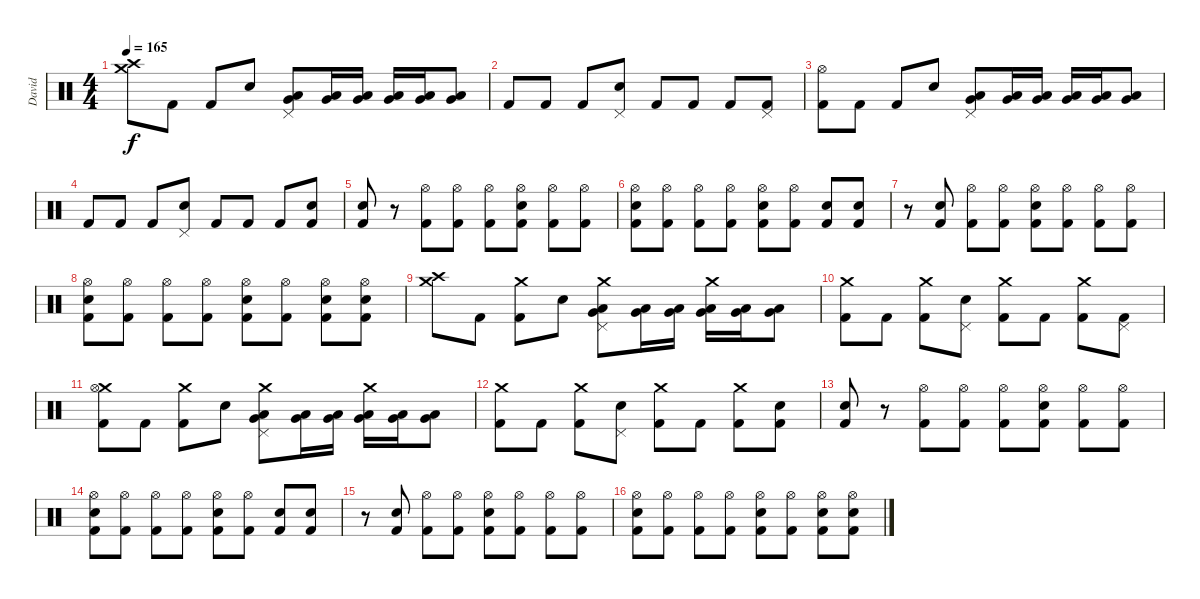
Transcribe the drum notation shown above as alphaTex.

\track ("David" "David") {instrument percussion}
\staff {score}
\articulation defaults
\ts (4 4)
\tempo 165
\clef neutral
\ks c
("Crash medium (hit)" "Crash high (hit)").8{dy f} "Kick (hit) 2".8 "Kick (hit) 2".8 "Electric Snare (hit)".8 ("Low Tom (hit)" "Very Low Tom (hit)" "Pedal Hi-Hat (hit)").8 ("Low Tom (hit)" "Very Low Tom (hit)").16 ("Low Tom (hit)" "Very Low Tom (hit)").16 ("Low Tom (hit)" "Very Low Tom (hit)").16 ("Low Tom (hit)" "Very Low Tom (hit)").16 ("Low Tom (hit)" "Very Low Tom (hit)").8 |
"Kick (hit) 2".8 "Kick (hit) 2".8 "Kick (hit) 2".8 ("Electric Snare (hit)" "Pedal Hi-Hat (hit)").8 "Kick (hit) 2".8 "Kick (hit) 2".8 "Kick (hit) 2".8 ("Pedal Hi-Hat (hit)" "Kick (hit) 2").8 |
("Hi-Hat (open)" "Kick (hit) 2").8 "Kick (hit) 2".8 "Kick (hit) 2".8 "Electric Snare (hit)".8 ("Low Tom (hit)" "Very Low Tom (hit)" "Pedal Hi-Hat (hit)").8 ("Low Tom (hit)" "Very Low Tom (hit)").16 ("Low Tom (hit)" "Very Low Tom (hit)").16 ("Low Tom (hit)" "Very Low Tom (hit)").16 ("Low Tom (hit)" "Very Low Tom (hit)").16 ("Low Tom (hit)" "Very Low Tom (hit)").8 |
"Kick (hit) 2".8 "Kick (hit) 2".8 "Kick (hit) 2".8 ("Electric Snare (hit)" "Pedal Hi-Hat (hit)").8 "Kick (hit) 2".8 "Kick (hit) 2".8 "Kick (hit) 2".8 ("Electric Snare (hit)" "Kick (hit) 2").8 |
("Electric Snare (hit)" "Kick (hit) 2").8 r.8 ("Hi-Hat (open)" "Kick (hit) 2").8 ("Hi-Hat (open)" "Kick (hit) 2").8 ("Hi-Hat (open)" "Kick (hit) 2").8 ("Electric Snare (hit)" "Hi-Hat (open)" "Kick (hit) 2").8 ("Hi-Hat (open)" "Kick (hit) 2").8 ("Hi-Hat (open)" "Kick (hit) 2").8 |
("Electric Snare (hit)" "Hi-Hat (open)" "Kick (hit) 2").8 ("Hi-Hat (open)" "Kick (hit) 2").8 ("Hi-Hat (open)" "Kick (hit) 2").8 ("Hi-Hat (open)" "Kick (hit) 2").8 ("Electric Snare (hit)" "Hi-Hat (open)" "Kick (hit) 2").8 ("Hi-Hat (open)" "Kick (hit) 2").8 ("Electric Snare (hit)" "Kick (hit) 2").8 ("Electric Snare (hit)" "Kick (hit) 2").8 |
r.8 ("Electric Snare (hit)" "Kick (hit) 2").8 ("Hi-Hat (open)" "Kick (hit) 2").8 ("Hi-Hat (open)" "Kick (hit) 2").8 ("Electric Snare (hit)" "Hi-Hat (open)" "Kick (hit) 2").8 ("Hi-Hat (open)" "Kick (hit) 2").8 ("Hi-Hat (open)" "Kick (hit) 2").8 ("Hi-Hat (open)" "Kick (hit) 2").8 |
("Electric Snare (hit)" "Hi-Hat (open)" "Kick (hit) 2").8 ("Hi-Hat (open)" "Kick (hit) 2").8 ("Hi-Hat (open)" "Kick (hit) 2").8 ("Hi-Hat (open)" "Kick (hit) 2").8 ("Electric Snare (hit)" "Hi-Hat (open)" "Kick (hit) 2").8 ("Hi-Hat (open)" "Kick (hit) 2").8 ("Electric Snare (hit)" "Hi-Hat (open)" "Kick (hit) 2").8 ("Electric Snare (hit)" "Hi-Hat (open)" "Kick (hit) 2").8 |
("Crash medium (hit)" "Crash high (hit)").8 "Kick (hit) 2".8 ("Crash medium (hit)" "Kick (hit) 2").8 "Electric Snare (hit)".8 ("Crash medium (hit)" "Low Tom (hit)" "Very Low Tom (hit)" "Pedal Hi-Hat (hit)").8 ("Low Tom (hit)" "Very Low Tom (hit)").16 ("Low Tom (hit)" "Very Low Tom (hit)").16 ("Crash medium (hit)" "Low Tom (hit)" "Very Low Tom (hit)").16 ("Low Tom (hit)" "Very Low Tom (hit)").16 ("Low Tom (hit)" "Very Low Tom (hit)").8 |
("Crash medium (hit)" "Kick (hit) 2").8 "Kick (hit) 2".8 ("Crash medium (hit)" "Kick (hit) 2").8 ("Electric Snare (hit)" "Pedal Hi-Hat (hit)").8 ("Crash medium (hit)" "Kick (hit) 2").8 "Kick (hit) 2".8 ("Crash medium (hit)" "Kick (hit) 2").8 ("Pedal Hi-Hat (hit)" "Kick (hit) 2").8 |
("Crash medium (hit)" "Hi-Hat (open)" "Kick (hit) 2").8 "Kick (hit) 2".8 ("Crash medium (hit)" "Kick (hit) 2").8 "Electric Snare (hit)".8 ("Crash medium (hit)" "Low Tom (hit)" "Very Low Tom (hit)" "Pedal Hi-Hat (hit)").8 ("Low Tom (hit)" "Very Low Tom (hit)").16 ("Low Tom (hit)" "Very Low Tom (hit)").16 ("Crash medium (hit)" "Low Tom (hit)" "Very Low Tom (hit)").16 ("Low Tom (hit)" "Very Low Tom (hit)").16 ("Low Tom (hit)" "Very Low Tom (hit)").8 |
("Crash medium (hit)" "Kick (hit) 2").8 "Kick (hit) 2".8 ("Crash medium (hit)" "Kick (hit) 2").8 ("Electric Snare (hit)" "Pedal Hi-Hat (hit)").8 ("Crash medium (hit)" "Kick (hit) 2").8 "Kick (hit) 2".8 ("Crash medium (hit)" "Kick (hit) 2").8 ("Electric Snare (hit)" "Kick (hit) 2").8 |
("Electric Snare (hit)" "Kick (hit) 2").8 r.8 ("Hi-Hat (open)" "Kick (hit) 2").8 ("Hi-Hat (open)" "Kick (hit) 2").8 ("Hi-Hat (open)" "Kick (hit) 2").8 ("Electric Snare (hit)" "Hi-Hat (open)" "Kick (hit) 2").8 ("Hi-Hat (open)" "Kick (hit) 2").8 ("Hi-Hat (open)" "Kick (hit) 2").8 |
("Electric Snare (hit)" "Hi-Hat (open)" "Kick (hit) 2").8 ("Hi-Hat (open)" "Kick (hit) 2").8 ("Hi-Hat (open)" "Kick (hit) 2").8 ("Hi-Hat (open)" "Kick (hit) 2").8 ("Electric Snare (hit)" "Hi-Hat (open)" "Kick (hit) 2").8 ("Hi-Hat (open)" "Kick (hit) 2").8 ("Electric Snare (hit)" "Kick (hit) 2").8 ("Electric Snare (hit)" "Kick (hit) 2").8 |
r.8 ("Electric Snare (hit)" "Kick (hit) 2").8 ("Hi-Hat (open)" "Kick (hit) 2").8 ("Hi-Hat (open)" "Kick (hit) 2").8 ("Electric Snare (hit)" "Hi-Hat (open)" "Kick (hit) 2").8 ("Hi-Hat (open)" "Kick (hit) 2").8 ("Hi-Hat (open)" "Kick (hit) 2").8 ("Hi-Hat (open)" "Kick (hit) 2").8 |
("Electric Snare (hit)" "Hi-Hat (open)" "Kick (hit) 2").8 ("Hi-Hat (open)" "Kick (hit) 2").8 ("Hi-Hat (open)" "Kick (hit) 2").8 ("Hi-Hat (open)" "Kick (hit) 2").8 ("Electric Snare (hit)" "Hi-Hat (open)" "Kick (hit) 2").8 ("Hi-Hat (open)" "Kick (hit) 2").8 ("Electric Snare (hit)" "Hi-Hat (open)" "Kick (hit) 2").8 ("Electric Snare (hit)" "Hi-Hat (open)" "Kick (hit) 2").8
